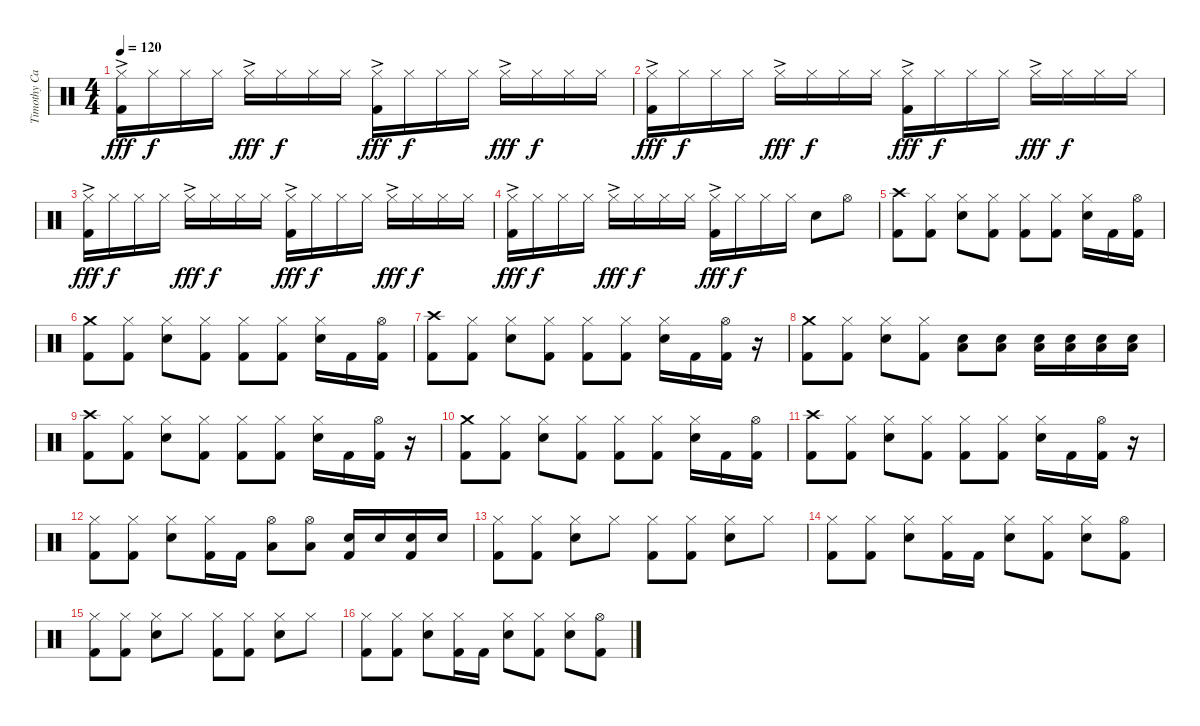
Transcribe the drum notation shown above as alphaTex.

\track ("Timothy Calkin" "Timothy Ca") {instrument percussion}
\staff {score}
\articulation defaults
\ts (4 4)
\tempo 120
\clef neutral
\ks c
("Hi-Hat (closed)"{ac} "Kick (hit) 2").16{dy fff} "Hi-Hat (closed)".16{dy f} "Hi-Hat (closed)".16 "Hi-Hat (closed)".16 "Hi-Hat (closed)"{ac}.16{dy fff} "Hi-Hat (closed)".16{dy f} "Hi-Hat (closed)".16 "Hi-Hat (closed)".16 ("Kick (hit) 2" "Hi-Hat (closed)"{ac}).16{dy fff} "Hi-Hat (closed)".16{dy f} "Hi-Hat (closed)".16 "Hi-Hat (closed)".16 "Hi-Hat (closed)"{ac}.16{dy fff} "Hi-Hat (closed)".16{dy f} "Hi-Hat (closed)".16 "Hi-Hat (closed)".16 |
("Hi-Hat (closed)"{ac} "Kick (hit) 2").16{dy fff} "Hi-Hat (closed)".16{dy f} "Hi-Hat (closed)".16 "Hi-Hat (closed)".16 "Hi-Hat (closed)"{ac}.16{dy fff} "Hi-Hat (closed)".16{dy f} "Hi-Hat (closed)".16 "Hi-Hat (closed)".16 ("Kick (hit) 2" "Hi-Hat (closed)"{ac}).16{dy fff} "Hi-Hat (closed)".16{dy f} "Hi-Hat (closed)".16 "Hi-Hat (closed)".16 "Hi-Hat (closed)"{ac}.16{dy fff} "Hi-Hat (closed)".16{dy f} "Hi-Hat (closed)".16 "Hi-Hat (closed)".16 |
("Hi-Hat (closed)"{ac} "Kick (hit) 2").16{dy fff} "Hi-Hat (closed)".16{dy f} "Hi-Hat (closed)".16 "Hi-Hat (closed)".16 "Hi-Hat (closed)"{ac}.16{dy fff} "Hi-Hat (closed)".16{dy f} "Hi-Hat (closed)".16 "Hi-Hat (closed)".16 ("Kick (hit) 2" "Hi-Hat (closed)"{ac}).16{dy fff} "Hi-Hat (closed)".16{dy f} "Hi-Hat (closed)".16 "Hi-Hat (closed)".16 "Hi-Hat (closed)"{ac}.16{dy fff} "Hi-Hat (closed)".16{dy f} "Hi-Hat (closed)".16 "Hi-Hat (closed)".16 |
("Hi-Hat (closed)"{ac} "Kick (hit) 2").16{dy fff} "Hi-Hat (closed)".16{dy f} "Hi-Hat (closed)".16 "Hi-Hat (closed)".16 "Hi-Hat (closed)"{ac}.16{dy fff} "Hi-Hat (closed)".16{dy f} "Hi-Hat (closed)".16 "Hi-Hat (closed)".16 ("Hi-Hat (closed)"{ac} "Kick (hit) 2").16{dy fff} "Hi-Hat (closed)".16{dy f} "Hi-Hat (closed)".16 "Hi-Hat (closed)".16 "Snare (hit) 2".8 "Hi-Hat (open)".8 |
("Crash high (hit)" "Kick (hit) 2").8 ("Hi-Hat (closed)" "Kick (hit) 2").8 ("Hi-Hat (closed)" "Snare (hit) 2").8 ("Hi-Hat (closed)" "Kick (hit) 2").8 ("Hi-Hat (closed)" "Kick (hit) 2").8 ("Hi-Hat (closed)" "Kick (hit) 2").8 ("Hi-Hat (closed)" "Snare (hit) 2").16 "Kick (hit) 2".16 ("Hi-Hat (open)" "Kick (hit) 2").16 |
("Crash medium (hit)" "Kick (hit) 2").8 ("Hi-Hat (closed)" "Kick (hit) 2").8 ("Hi-Hat (closed)" "Snare (hit) 2").8 ("Hi-Hat (closed)" "Kick (hit) 2").8 ("Hi-Hat (closed)" "Kick (hit) 2").8 ("Hi-Hat (closed)" "Kick (hit) 2").8 ("Hi-Hat (closed)" "Snare (hit) 2").16 "Kick (hit) 2".16 ("Hi-Hat (open)" "Kick (hit) 2").16 |
("Crash high (hit)" "Kick (hit) 2").8 ("Hi-Hat (closed)" "Kick (hit) 2").8 ("Hi-Hat (closed)" "Snare (hit) 2").8 ("Hi-Hat (closed)" "Kick (hit) 2").8 ("Hi-Hat (closed)" "Kick (hit) 2").8 ("Hi-Hat (closed)" "Kick (hit) 2").8 ("Hi-Hat (closed)" "Snare (hit) 2").16 "Kick (hit) 2".16 ("Hi-Hat (open)" "Kick (hit) 2").16 r.16 |
("Crash medium (hit)" "Kick (hit) 2").8 ("Hi-Hat (closed)" "Kick (hit) 2").8 ("Hi-Hat (closed)" "Snare (hit) 2").8 ("Hi-Hat (closed)" "Kick (hit) 2").8 ("Snare (hit) 2" "Low Floor Tom (hit)").8 ("Snare (hit) 2" "Low Floor Tom (hit)").8 ("Snare (hit) 2" "Low Floor Tom (hit)").16 ("Snare (hit) 2" "Low Floor Tom (hit)").16 ("Snare (hit) 2" "Low Floor Tom (hit)").16 ("Snare (hit) 2" "Low Floor Tom (hit)").16 |
("Crash high (hit)" "Kick (hit) 2").8 ("Hi-Hat (closed)" "Kick (hit) 2").8 ("Hi-Hat (closed)" "Snare (hit) 2").8 ("Hi-Hat (closed)" "Kick (hit) 2").8 ("Hi-Hat (closed)" "Kick (hit) 2").8 ("Hi-Hat (closed)" "Kick (hit) 2").8 ("Hi-Hat (closed)" "Snare (hit) 2").16 "Kick (hit) 2".16 ("Hi-Hat (open)" "Kick (hit) 2").16 r.16 |
("Crash medium (hit)" "Kick (hit) 2").8 ("Hi-Hat (closed)" "Kick (hit) 2").8 ("Hi-Hat (closed)" "Snare (hit) 2").8 ("Hi-Hat (closed)" "Kick (hit) 2").8 ("Hi-Hat (closed)" "Kick (hit) 2").8 ("Hi-Hat (closed)" "Kick (hit) 2").8 ("Hi-Hat (closed)" "Snare (hit) 2").16 "Kick (hit) 2".16 ("Hi-Hat (open)" "Kick (hit) 2").16 |
("Crash high (hit)" "Kick (hit) 2").8 ("Hi-Hat (closed)" "Kick (hit) 2").8 ("Hi-Hat (closed)" "Snare (hit) 2").8 ("Hi-Hat (closed)" "Kick (hit) 2").8 ("Hi-Hat (closed)" "Kick (hit) 2").8 ("Hi-Hat (closed)" "Kick (hit) 2").8 ("Hi-Hat (closed)" "Snare (hit) 2").16 "Kick (hit) 2".16 ("Hi-Hat (open)" "Kick (hit) 2").16 r.16 |
("Hi-Hat (closed)" "Kick (hit) 2").8 ("Hi-Hat (closed)" "Kick (hit) 2").8 ("Hi-Hat (closed)" "Snare (hit) 2").8 ("Hi-Hat (closed)" "Kick (hit) 2").16 "Kick (hit) 2".16 ("Hi-Hat (open)" "Low Floor Tom (hit)").8 ("Hi-Hat (open)" "Low Floor Tom (hit)").8 ("Snare (hit) 2" "Kick (hit) 2").16 "Snare (hit) 2".16 ("Snare (hit) 2" "Kick (hit) 2").16 "Snare (hit) 2".16 |
("Hi-Hat (closed)" "Kick (hit) 2").8 ("Hi-Hat (closed)" "Kick (hit) 2").8 ("Hi-Hat (closed)" "Snare (hit) 2").8 "Hi-Hat (closed)".8 ("Hi-Hat (closed)" "Kick (hit) 2").8 ("Hi-Hat (closed)" "Kick (hit) 2").8 ("Hi-Hat (closed)" "Snare (hit) 2").8 "Hi-Hat (closed)".8 |
("Hi-Hat (closed)" "Kick (hit) 2").8 ("Hi-Hat (closed)" "Kick (hit) 2").8 ("Hi-Hat (closed)" "Snare (hit) 2").8 ("Hi-Hat (closed)" "Kick (hit) 2").16 "Kick (hit) 2".16 ("Hi-Hat (closed)" "Snare (hit) 2").8 ("Hi-Hat (closed)" "Kick (hit) 2").8 ("Hi-Hat (closed)" "Snare (hit) 2").8 ("Hi-Hat (open)" "Kick (hit) 2").8 |
("Hi-Hat (closed)" "Kick (hit) 2").8 ("Hi-Hat (closed)" "Kick (hit) 2").8 ("Hi-Hat (closed)" "Snare (hit) 2").8 "Hi-Hat (closed)".8 ("Hi-Hat (closed)" "Kick (hit) 2").8 ("Hi-Hat (closed)" "Kick (hit) 2").8 ("Hi-Hat (closed)" "Snare (hit) 2").8 "Hi-Hat (closed)".8 |
("Hi-Hat (closed)" "Kick (hit) 2").8 ("Hi-Hat (closed)" "Kick (hit) 2").8 ("Hi-Hat (closed)" "Snare (hit) 2").8 ("Hi-Hat (closed)" "Kick (hit) 2").16 "Kick (hit) 2".16 ("Hi-Hat (closed)" "Snare (hit) 2").8 ("Hi-Hat (closed)" "Kick (hit) 2").8 ("Hi-Hat (closed)" "Snare (hit) 2").8 ("Hi-Hat (open)" "Kick (hit) 2").8
